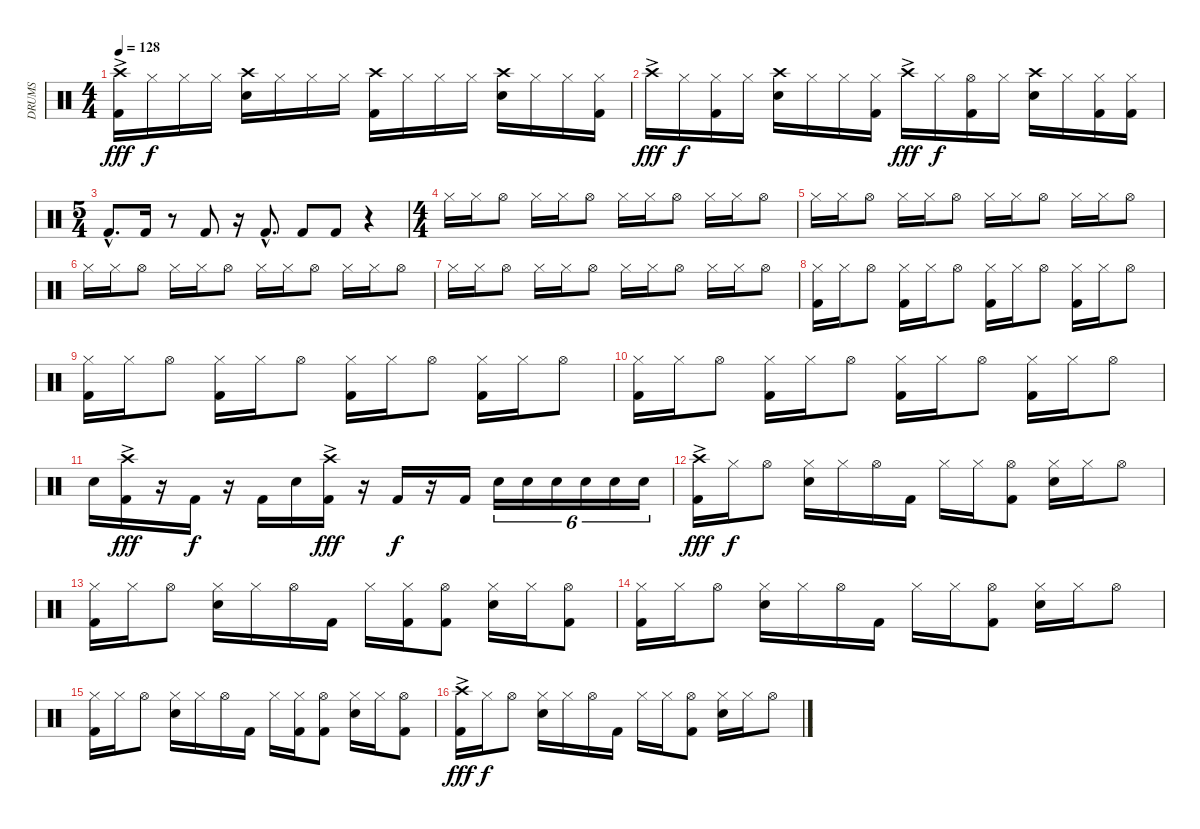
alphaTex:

\track ("DRUMS" "DRUMS") {instrument percussion}
\staff {score}
\articulation defaults
\ts (4 4)
\tempo 128
\clef neutral
\ks c
("Crash high (hit)"{ac} "Kick (hit) 2").16{dy fff} "Hi-Hat (closed)".16{dy f} "Hi-Hat (closed)".16 "Hi-Hat (closed)".16 ("Crash high (hit)" "Snare (hit) 2").16 "Hi-Hat (closed)".16 "Hi-Hat (closed)".16 "Hi-Hat (closed)".16 ("Crash high (hit)" "Kick (hit) 2").16 "Hi-Hat (closed)".16 "Hi-Hat (closed)".16 "Hi-Hat (closed)".16 ("Crash high (hit)" "Snare (hit) 2").16 "Hi-Hat (closed)".16 "Hi-Hat (closed)".16 ("Hi-Hat (closed)" "Kick (hit) 2").16 |
"Crash high (hit)"{ac}.16{dy fff} "Hi-Hat (closed)".16{dy f} ("Hi-Hat (closed)" "Kick (hit) 2").16 "Hi-Hat (closed)".16 ("Crash high (hit)" "Snare (hit) 2").16 "Hi-Hat (closed)".16 "Hi-Hat (closed)".16 ("Hi-Hat (closed)" "Kick (hit) 2").16 "Crash high (hit)"{ac}.16{dy fff} "Hi-Hat (closed)".16{dy f} ("Hi-Hat (open)" "Kick (hit) 2").16 "Hi-Hat (closed)".16 ("Crash high (hit)" "Snare (hit) 2").16 "Hi-Hat (closed)".16 ("Hi-Hat (closed)" "Kick (hit) 2").16 ("Hi-Hat (closed)" "Kick (hit) 2").16 |
\ts (5 4)
"Kick (hit) 2"{hac}.8{d} "Kick (hit) 2".16 r.8 "Kick (hit) 2".8 r.16 "Kick (hit) 2"{hac}.8{d} "Kick (hit) 2".8 "Kick (hit) 2".8 r.4 |
\ts (4 4)
"Hi-Hat (closed)".16 "Hi-Hat (closed)".16 "Hi-Hat (open)".8 "Hi-Hat (closed)".16 "Hi-Hat (closed)".16 "Hi-Hat (open)".8 "Hi-Hat (closed)".16 "Hi-Hat (closed)".16 "Hi-Hat (open)".8 "Hi-Hat (closed)".16 "Hi-Hat (closed)".16 "Hi-Hat (open)".8 |
"Hi-Hat (closed)".16 "Hi-Hat (closed)".16 "Hi-Hat (open)".8 "Hi-Hat (closed)".16 "Hi-Hat (closed)".16 "Hi-Hat (open)".8 "Hi-Hat (closed)".16 "Hi-Hat (closed)".16 "Hi-Hat (open)".8 "Hi-Hat (closed)".16 "Hi-Hat (closed)".16 "Hi-Hat (open)".8 |
"Hi-Hat (closed)".16 "Hi-Hat (closed)".16 "Hi-Hat (open)".8 "Hi-Hat (closed)".16 "Hi-Hat (closed)".16 "Hi-Hat (open)".8 "Hi-Hat (closed)".16 "Hi-Hat (closed)".16 "Hi-Hat (open)".8 "Hi-Hat (closed)".16 "Hi-Hat (closed)".16 "Hi-Hat (open)".8 |
"Hi-Hat (closed)".16 "Hi-Hat (closed)".16 "Hi-Hat (open)".8 "Hi-Hat (closed)".16 "Hi-Hat (closed)".16 "Hi-Hat (open)".8 "Hi-Hat (closed)".16 "Hi-Hat (closed)".16 "Hi-Hat (open)".8 "Hi-Hat (closed)".16 "Hi-Hat (closed)".16 "Hi-Hat (open)".8 |
("Hi-Hat (closed)" "Kick (hit) 2").16 "Hi-Hat (closed)".16 "Hi-Hat (open)".8 ("Hi-Hat (closed)" "Kick (hit) 2").16 "Hi-Hat (closed)".16 "Hi-Hat (open)".8 ("Hi-Hat (closed)" "Kick (hit) 2").16 "Hi-Hat (closed)".16 "Hi-Hat (open)".8 ("Hi-Hat (closed)" "Kick (hit) 2").16 "Hi-Hat (closed)".16 "Hi-Hat (open)".8 |
("Hi-Hat (closed)" "Kick (hit) 2").16 "Hi-Hat (closed)".16 "Hi-Hat (open)".8 ("Hi-Hat (closed)" "Kick (hit) 2").16 "Hi-Hat (closed)".16 "Hi-Hat (open)".8 ("Hi-Hat (closed)" "Kick (hit) 2").16 "Hi-Hat (closed)".16 "Hi-Hat (open)".8 ("Hi-Hat (closed)" "Kick (hit) 2").16 "Hi-Hat (closed)".16 "Hi-Hat (open)".8 |
("Hi-Hat (closed)" "Kick (hit) 2").16 "Hi-Hat (closed)".16 "Hi-Hat (open)".8 ("Hi-Hat (closed)" "Kick (hit) 2").16 "Hi-Hat (closed)".16 "Hi-Hat (open)".8 ("Hi-Hat (closed)" "Kick (hit) 2").16 "Hi-Hat (closed)".16 "Hi-Hat (open)".8 ("Hi-Hat (closed)" "Kick (hit) 2").16 "Hi-Hat (closed)".16 "Hi-Hat (open)".8 |
"Snare (hit) 2".16 ("Crash high (hit)"{ac} "Kick (hit) 2").16{dy fff} r.16 "Kick (hit) 2".16{dy f} r.16 "Kick (hit) 2".16 "Snare (hit) 2".16 ("Crash high (hit)"{ac} "Kick (hit) 2").16{dy fff} r.16 "Kick (hit) 2".16{dy f} r.16 "Kick (hit) 2".16 "Snare (hit) 2".16{tu (6 4)} "Snare (hit) 2".16{tu (6 4)} "Snare (hit) 2".16{tu (6 4)} "Snare (hit) 2".16{tu (6 4)} "Snare (hit) 2".16{tu (6 4)} "Snare (hit) 2".16{tu (6 4)} |
("Crash high (hit)"{ac} "Kick (hit) 2").16{dy fff} "Hi-Hat (closed)".16{dy f} "Hi-Hat (open)".8 ("Hi-Hat (closed)" "Snare (hit) 2").16 "Hi-Hat (closed)".16 "Hi-Hat (open)".16 "Kick (hit) 2".16 "Hi-Hat (closed)".16 "Hi-Hat (closed)".16 ("Hi-Hat (open)" "Kick (hit) 2").8 ("Hi-Hat (closed)" "Snare (hit) 2").16 "Hi-Hat (closed)".16 "Hi-Hat (open)".8 |
("Hi-Hat (closed)" "Kick (hit) 2").16 "Hi-Hat (closed)".16 "Hi-Hat (open)".8 ("Hi-Hat (closed)" "Snare (hit) 2").16 "Hi-Hat (closed)".16 "Hi-Hat (open)".16 "Kick (hit) 2".16 "Hi-Hat (closed)".16 ("Hi-Hat (closed)" "Kick (hit) 2").16 ("Hi-Hat (open)" "Kick (hit) 2").8 ("Hi-Hat (closed)" "Snare (hit) 2").16 "Hi-Hat (closed)".16 ("Hi-Hat (open)" "Kick (hit) 2").8 |
("Hi-Hat (closed)" "Kick (hit) 2").16 "Hi-Hat (closed)".16 "Hi-Hat (open)".8 ("Hi-Hat (closed)" "Snare (hit) 2").16 "Hi-Hat (closed)".16 "Hi-Hat (open)".16 "Kick (hit) 2".16 "Hi-Hat (closed)".16 "Hi-Hat (closed)".16 ("Hi-Hat (open)" "Kick (hit) 2").8 ("Hi-Hat (closed)" "Snare (hit) 2").16 "Hi-Hat (closed)".16 "Hi-Hat (open)".8 |
("Hi-Hat (closed)" "Kick (hit) 2").16 "Hi-Hat (closed)".16 "Hi-Hat (open)".8 ("Hi-Hat (closed)" "Snare (hit) 2").16 "Hi-Hat (closed)".16 "Hi-Hat (open)".16 "Kick (hit) 2".16 "Hi-Hat (closed)".16 ("Hi-Hat (closed)" "Kick (hit) 2").16 ("Hi-Hat (open)" "Kick (hit) 2").8 ("Hi-Hat (closed)" "Snare (hit) 2").16 "Hi-Hat (closed)".16 ("Hi-Hat (open)" "Kick (hit) 2").8 |
("Crash high (hit)"{ac} "Kick (hit) 2").16{dy fff} "Hi-Hat (closed)".16{dy f} "Hi-Hat (open)".8 ("Hi-Hat (closed)" "Snare (hit) 2").16 "Hi-Hat (closed)".16 "Hi-Hat (open)".16 "Kick (hit) 2".16 "Hi-Hat (closed)".16 "Hi-Hat (closed)".16 ("Hi-Hat (open)" "Kick (hit) 2").8 ("Hi-Hat (closed)" "Snare (hit) 2").16 "Hi-Hat (closed)".16 "Hi-Hat (open)".8
